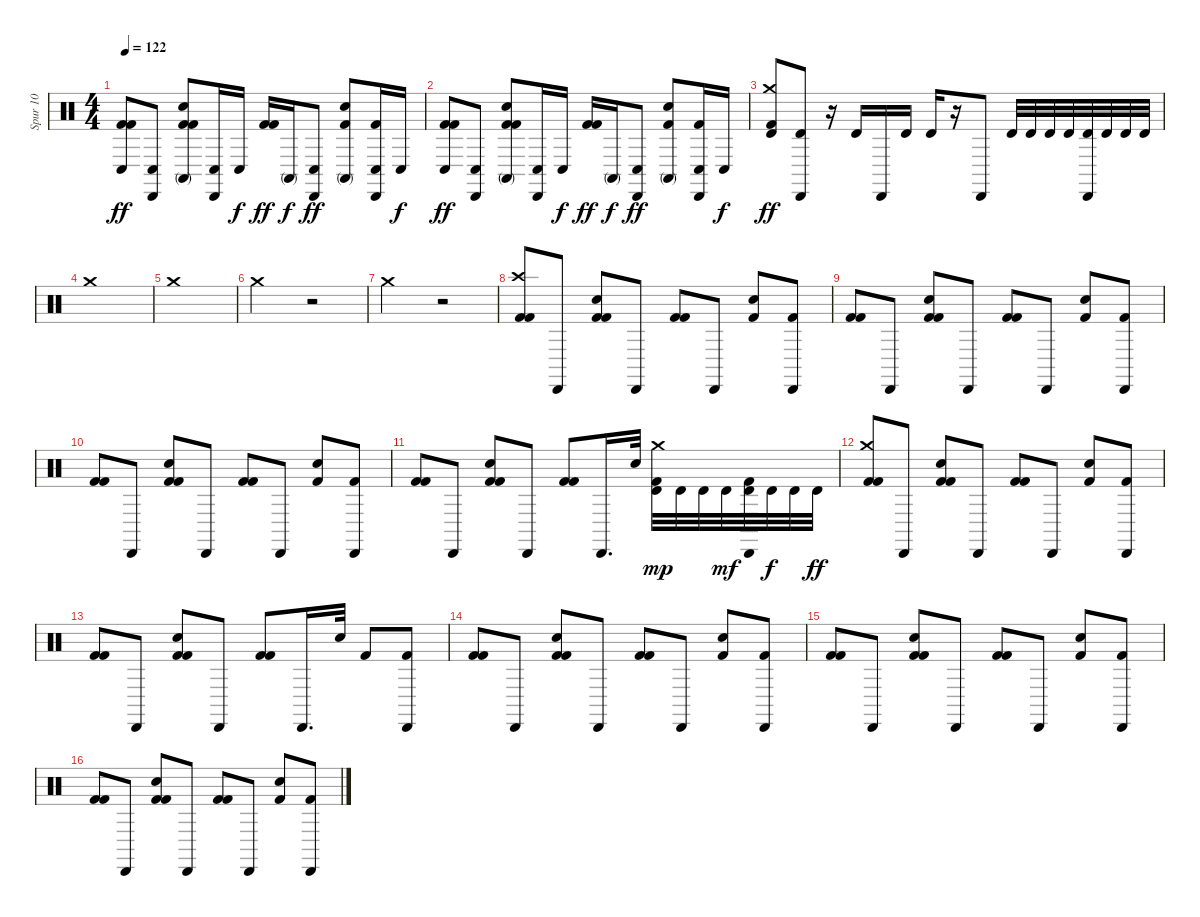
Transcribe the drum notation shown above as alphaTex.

\track ("Spur 10" "Spur 10") {instrument percussion}
\staff {score}
\articulation defaults
\ts (4 4)
\tempo 122
\clef neutral
\ks c
("Conga low (hit)" "Kick (hit) 2" "Kick (hit) 2").8{dy ff} ("Conga low (hit)" "Cabasa (hit)").8 ("Conga high (mute)" "Kick (hit) 2" "Kick (hit) 2" "Hand Clap (hit)").8 ("Conga low (hit)" "Cabasa (hit)").16 "Conga low (hit)".16{dy f} ("Kick (hit) 2" "Kick (hit) 2").16{dy ff} "Conga high (mute)".16{dy f} ("Conga low (hit)" "Cabasa (hit)").8{dy ff} ("Hand Clap (hit)" "Conga high (mute)" "Kick (hit) 2").8 ("Conga low (hit)" "Cabasa (hit)" "Kick (hit) 2").16 "Conga low (hit)".16{dy f} |
("Kick (hit) 2" "Kick (hit) 2" "Conga low (hit)").8{dy ff} ("Cabasa (hit)" "Conga low (hit)").8 ("Kick (hit) 2" "Kick (hit) 2" "Hand Clap (hit)" "Conga high (mute)").8 ("Cabasa (hit)" "Conga low (hit)").16 "Conga low (hit)".16{dy f} ("Kick (hit) 2" "Kick (hit) 2").16{dy ff} "Conga high (mute)".16{dy f} ("Cabasa (hit)" "Conga low (hit)").8{dy ff} ("Hand Clap (hit)" "Kick (hit) 2" "Conga high (mute)").8 ("Cabasa (hit)" "Kick (hit) 2" "Conga low (hit)").16 "Conga low (hit)".16{dy f} |
("Timbale high (hit)" "Crash medium (hit)" "Kick (hit) 2").8{dy ff} ("Cabasa (hit)" "Timbale high (hit)").8 r.16 "Timbale high (hit)".16 "Cabasa (hit)".16 "Timbale high (hit)".16 "Timbale high (hit)".16 r.16 "Cabasa (hit)".8 "Timbale high (hit)".32 "Timbale high (hit)".32 "Timbale high (hit)".32 "Timbale high (hit)".32 ("Cabasa (hit)" "Timbale high (hit)").32 "Timbale high (hit)".32 "Timbale high (hit)".32 "Timbale high (hit)".32 |
"Crash medium (hit)".1 |
"Crash medium (hit)".1 |
"Crash medium (hit)".2 r.2 |
"Crash medium (hit)".2 r.2 |
("Crash high (hit)" "Kick (hit) 2" "Kick (hit) 2").8 "Cabasa (hit)".8 ("Kick (hit) 2" "Kick (hit) 2" "Hand Clap (hit)").8 "Cabasa (hit)".8 ("Kick (hit) 2" "Kick (hit) 2").8 "Cabasa (hit)".8 ("Hand Clap (hit)" "Kick (hit) 2").8 ("Cabasa (hit)" "Kick (hit) 2").8 |
("Kick (hit) 2" "Kick (hit) 2").8 "Cabasa (hit)".8 ("Kick (hit) 2" "Kick (hit) 2" "Hand Clap (hit)").8 "Cabasa (hit)".8 ("Kick (hit) 2" "Kick (hit) 2").8 "Cabasa (hit)".8 ("Hand Clap (hit)" "Kick (hit) 2").8 ("Cabasa (hit)" "Kick (hit) 2").8 |
("Kick (hit) 2" "Kick (hit) 2").8 "Cabasa (hit)".8 ("Kick (hit) 2" "Kick (hit) 2" "Hand Clap (hit)").8 "Cabasa (hit)".8 ("Kick (hit) 2" "Kick (hit) 2").8 "Cabasa (hit)".8 ("Hand Clap (hit)" "Kick (hit) 2").8 ("Cabasa (hit)" "Kick (hit) 2").8 |
("Kick (hit) 2" "Kick (hit) 2").8 "Cabasa (hit)".8 ("Kick (hit) 2" "Kick (hit) 2" "Hand Clap (hit)").8 "Cabasa (hit)".8 ("Kick (hit) 2" "Kick (hit) 2").8 "Cabasa (hit)".16{d} "Hand Clap (hit)".32 ("Kick (hit) 2" "Crash medium (hit)" "Timbale high (hit)").32{dy mp} "Timbale high (hit)".32 "Timbale high (hit)".32 "Timbale high (hit)".32{dy mf} ("Cabasa (hit)" "Kick (hit) 2" "Timbale high (hit)").32 "Timbale high (hit)".32{dy f} "Timbale high (hit)".32 "Timbale high (hit)".32{dy ff} |
("Kick (hit) 2" "Kick (hit) 2" "Crash medium (hit)").8 "Cabasa (hit)".8 ("Kick (hit) 2" "Kick (hit) 2" "Hand Clap (hit)").8 "Cabasa (hit)".8 ("Kick (hit) 2" "Kick (hit) 2").8 "Cabasa (hit)".8 ("Hand Clap (hit)" "Kick (hit) 2").8 ("Cabasa (hit)" "Kick (hit) 2").8 |
("Kick (hit) 2" "Kick (hit) 2").8 "Cabasa (hit)".8 ("Kick (hit) 2" "Kick (hit) 2" "Hand Clap (hit)").8 "Cabasa (hit)".8 ("Kick (hit) 2" "Kick (hit) 2").8 "Cabasa (hit)".16{d} "Hand Clap (hit)".32 "Kick (hit) 2".8 ("Cabasa (hit)" "Kick (hit) 2").8 |
("Kick (hit) 2" "Kick (hit) 2").8 "Cabasa (hit)".8 ("Kick (hit) 2" "Kick (hit) 2" "Hand Clap (hit)").8 "Cabasa (hit)".8 ("Kick (hit) 2" "Kick (hit) 2").8 "Cabasa (hit)".8 ("Hand Clap (hit)" "Kick (hit) 2").8 ("Cabasa (hit)" "Kick (hit) 2").8 |
("Kick (hit) 2" "Kick (hit) 2").8 "Cabasa (hit)".8 ("Kick (hit) 2" "Kick (hit) 2" "Hand Clap (hit)").8 "Cabasa (hit)".8 ("Kick (hit) 2" "Kick (hit) 2").8 "Cabasa (hit)".8 ("Hand Clap (hit)" "Kick (hit) 2").8 ("Cabasa (hit)" "Kick (hit) 2").8 |
("Kick (hit) 2" "Kick (hit) 2").8 "Cabasa (hit)".8 ("Kick (hit) 2" "Kick (hit) 2" "Hand Clap (hit)").8 "Cabasa (hit)".8 ("Kick (hit) 2" "Kick (hit) 2").8 "Cabasa (hit)".8 ("Hand Clap (hit)" "Kick (hit) 2").8 ("Cabasa (hit)" "Kick (hit) 2").8
